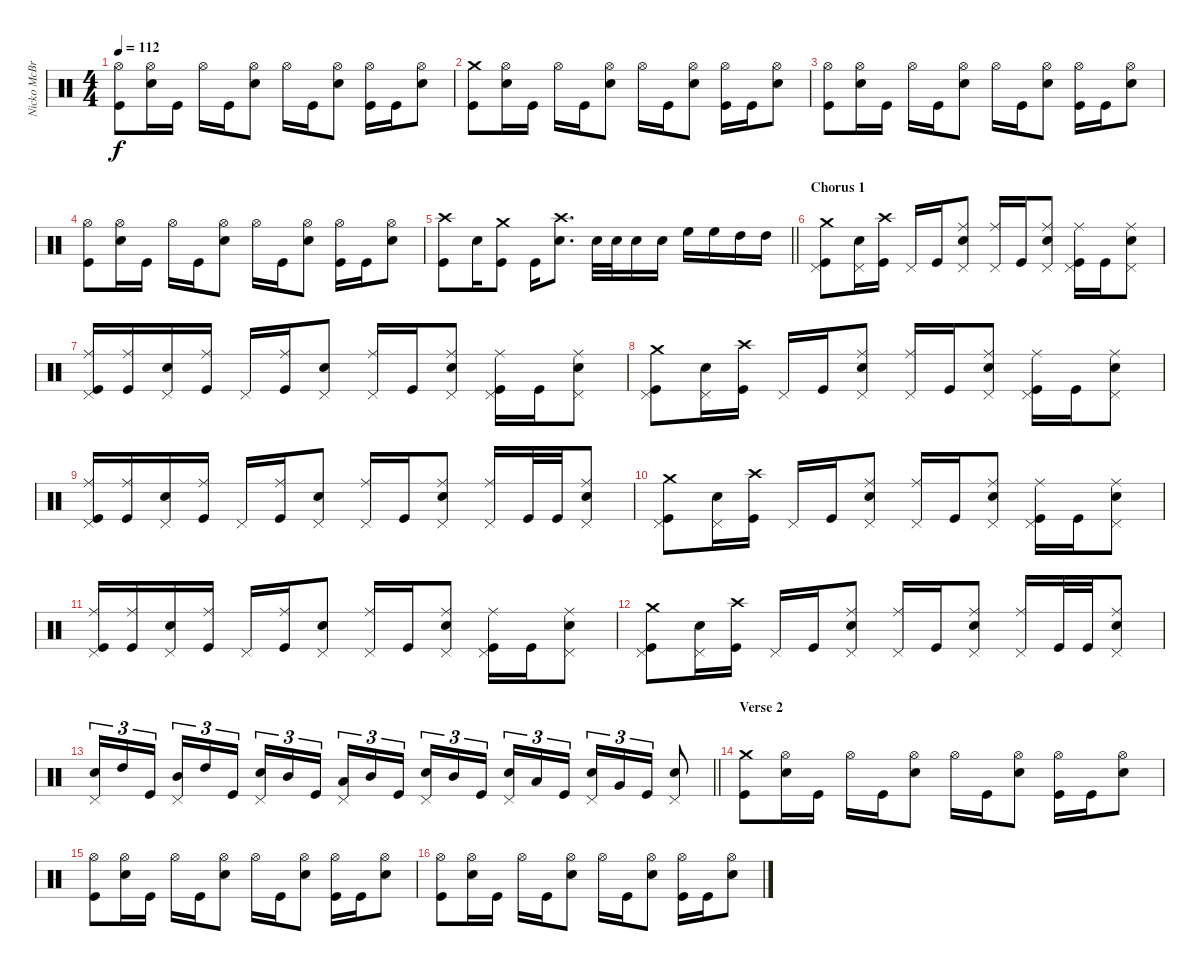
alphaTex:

\track ("Nicko McBrain" "Nicko McBr") {instrument percussion}
\staff {score}
\articulation defaults
\ts (4 4)
\tempo 112
\clef neutral
\ks c
("Hi-Hat (open)" "Kick (hit)").8{dy f} ("Hi-Hat (open)" "Snare (hit) 2").16 "Kick (hit)".16 "Hi-Hat (open)".16 "Kick (hit)".16 ("Hi-Hat (open)" "Snare (hit) 2").8 "Hi-Hat (open)".16 "Kick (hit)".16 ("Hi-Hat (open)" "Snare (hit) 2").8 ("Hi-Hat (open)" "Kick (hit)").16 "Kick (hit)".16 ("Hi-Hat (open)" "Snare (hit) 2").8 |
("Crash medium (hit)" "Kick (hit)").8 ("Hi-Hat (open)" "Snare (hit) 2").16 "Kick (hit)".16 "Hi-Hat (open)".16 "Kick (hit)".16 ("Hi-Hat (open)" "Snare (hit) 2").8 "Hi-Hat (open)".16 "Kick (hit)".16 ("Hi-Hat (open)" "Snare (hit) 2").8 ("Hi-Hat (open)" "Kick (hit)").16 "Kick (hit)".16 ("Hi-Hat (open)" "Snare (hit) 2").8 |
("Hi-Hat (open)" "Kick (hit)").8 ("Hi-Hat (open)" "Snare (hit) 2").16 "Kick (hit)".16 "Hi-Hat (open)".16 "Kick (hit)".16 ("Hi-Hat (open)" "Snare (hit) 2").8 "Hi-Hat (open)".16 "Kick (hit)".16 ("Hi-Hat (open)" "Snare (hit) 2").8 ("Hi-Hat (open)" "Kick (hit)").16 "Kick (hit)".16 ("Hi-Hat (open)" "Snare (hit) 2").8 |
("Hi-Hat (open)" "Kick (hit)").8 ("Hi-Hat (open)" "Snare (hit) 2").16 "Kick (hit)".16 "Hi-Hat (open)".16 "Kick (hit)".16 ("Hi-Hat (open)" "Snare (hit) 2").8 "Hi-Hat (open)".16 "Kick (hit)".16 ("Hi-Hat (open)" "Snare (hit) 2").8 ("Hi-Hat (open)" "Kick (hit)").16 "Kick (hit)".16 ("Hi-Hat (open)" "Snare (hit) 2").8 |
\barLineRight lightlight
("Crash high (hit)" "Kick (hit)").8 "Snare (hit) 2".16 ("Crash medium (hit)" "Kick (hit)").8 "Kick (hit)".16 ("Crash high (hit)" "Snare (hit) 2").8{d} "Snare (hit) 2".32 "Snare (hit) 2".32 "Snare (hit) 2".16 "Snare (hit) 2".16 "High Floor Tom (hit)".16 "High Floor Tom (hit)".16 "High Tom (hit)".16 "High Tom (hit)".16 |
\section ("" "Chorus 1")
("Crash medium (hit)" "Pedal Hi-Hat (hit)" "Kick (hit)").8 ("Snare (hit) 2" "Pedal Hi-Hat (hit)").16 ("Crash high (hit)" "Kick (hit)").16 "Pedal Hi-Hat (hit)".16 "Kick (hit)".16 ("Ride (middle)" "Snare (hit) 2" "Pedal Hi-Hat (hit)").8 ("Ride (middle)" "Pedal Hi-Hat (hit)").16 "Kick (hit)".16 ("Ride (middle)" "Snare (hit) 2" "Pedal Hi-Hat (hit)").8 ("Ride (middle)" "Pedal Hi-Hat (hit)" "Kick (hit)").16 "Kick (hit)".16 ("Ride (middle)" "Snare (hit) 2" "Pedal Hi-Hat (hit)").8 |
("Ride (middle)" "Pedal Hi-Hat (hit)" "Kick (hit)").16 ("Ride (middle)" "Kick (hit)").16 ("Snare (hit) 2" "Pedal Hi-Hat (hit)").16 ("Ride (middle)" "Kick (hit)").16 "Pedal Hi-Hat (hit)".16 ("Ride (middle)" "Kick (hit)").16 ("Snare (hit) 2" "Pedal Hi-Hat (hit)").8 ("Ride (middle)" "Pedal Hi-Hat (hit)").16 "Kick (hit)".16 ("Ride (middle)" "Snare (hit) 2" "Pedal Hi-Hat (hit)").8 ("Ride (middle)" "Pedal Hi-Hat (hit)" "Kick (hit)").16 "Kick (hit)".16 ("Ride (middle)" "Snare (hit) 2" "Pedal Hi-Hat (hit)").8 |
("Crash medium (hit)" "Pedal Hi-Hat (hit)" "Kick (hit)").8 ("Snare (hit) 2" "Pedal Hi-Hat (hit)").16 ("Crash high (hit)" "Kick (hit)").16 "Pedal Hi-Hat (hit)".16 "Kick (hit)".16 ("Ride (middle)" "Snare (hit) 2" "Pedal Hi-Hat (hit)").8 ("Ride (middle)" "Pedal Hi-Hat (hit)").16 "Kick (hit)".16 ("Ride (middle)" "Snare (hit) 2" "Pedal Hi-Hat (hit)").8 ("Ride (middle)" "Pedal Hi-Hat (hit)" "Kick (hit)").16 "Kick (hit)".16 ("Ride (middle)" "Snare (hit) 2" "Pedal Hi-Hat (hit)").8 |
("Ride (middle)" "Pedal Hi-Hat (hit)" "Kick (hit)").16 ("Ride (middle)" "Kick (hit)").16 ("Snare (hit) 2" "Pedal Hi-Hat (hit)").16 ("Ride (middle)" "Kick (hit)").16 "Pedal Hi-Hat (hit)".16 ("Ride (middle)" "Kick (hit)").16 ("Snare (hit) 2" "Pedal Hi-Hat (hit)").8 ("Ride (middle)" "Pedal Hi-Hat (hit)").16 "Kick (hit)".16 ("Ride (middle)" "Snare (hit) 2" "Pedal Hi-Hat (hit)").8 ("Ride (middle)" "Pedal Hi-Hat (hit)").16 "Kick (hit)".32 "Kick (hit)".32 ("Ride (middle)" "Snare (hit) 2" "Pedal Hi-Hat (hit)").8 |
("Crash medium (hit)" "Pedal Hi-Hat (hit)" "Kick (hit)").8 ("Snare (hit) 2" "Pedal Hi-Hat (hit)").16 ("Crash high (hit)" "Kick (hit)").16 "Pedal Hi-Hat (hit)".16 "Kick (hit)".16 ("Ride (middle)" "Snare (hit) 2" "Pedal Hi-Hat (hit)").8 ("Ride (middle)" "Pedal Hi-Hat (hit)").16 "Kick (hit)".16 ("Ride (middle)" "Snare (hit) 2" "Pedal Hi-Hat (hit)").8 ("Ride (middle)" "Pedal Hi-Hat (hit)" "Kick (hit)").16 "Kick (hit)".16 ("Ride (middle)" "Snare (hit) 2" "Pedal Hi-Hat (hit)").8 |
("Ride (middle)" "Pedal Hi-Hat (hit)" "Kick (hit)").16 ("Ride (middle)" "Kick (hit)").16 ("Snare (hit) 2" "Pedal Hi-Hat (hit)").16 ("Ride (middle)" "Kick (hit)").16 "Pedal Hi-Hat (hit)".16 ("Ride (middle)" "Kick (hit)").16 ("Snare (hit) 2" "Pedal Hi-Hat (hit)").8 ("Ride (middle)" "Pedal Hi-Hat (hit)").16 "Kick (hit)".16 ("Ride (middle)" "Snare (hit) 2" "Pedal Hi-Hat (hit)").8 ("Ride (middle)" "Pedal Hi-Hat (hit)" "Kick (hit)").16 "Kick (hit)".16 ("Ride (middle)" "Snare (hit) 2" "Pedal Hi-Hat (hit)").8 |
("Crash medium (hit)" "Pedal Hi-Hat (hit)" "Kick (hit)").8 ("Snare (hit) 2" "Pedal Hi-Hat (hit)").16 ("Crash high (hit)" "Kick (hit)").16 "Pedal Hi-Hat (hit)".16 "Kick (hit)".16 ("Ride (middle)" "Snare (hit) 2" "Pedal Hi-Hat (hit)").8 ("Ride (middle)" "Pedal Hi-Hat (hit)").16 "Kick (hit)".16 ("Ride (middle)" "Snare (hit) 2" "Pedal Hi-Hat (hit)").8 ("Ride (middle)" "Pedal Hi-Hat (hit)").16 "Kick (hit)".32 "Kick (hit)".32 ("Ride (middle)" "Snare (hit) 2" "Pedal Hi-Hat (hit)").8 |
\barLineRight lightlight
("Snare (hit) 2" "Pedal Hi-Hat (hit)").16{tu (3 2)} "High Tom (hit)".16{tu (3 2)} "Kick (hit)".16{tu (3 2) beam splitsecondary} ("Mid Tom (hit)" "Pedal Hi-Hat (hit)").16{tu (3 2)} "High Tom (hit)".16{tu (3 2)} "Kick (hit)".16{tu (3 2)} ("Snare (hit) 2" "Pedal Hi-Hat (hit)").16{tu (3 2)} "Mid Tom (hit)".16{tu (3 2)} "Kick (hit)".16{tu (3 2) beam splitsecondary} ("Low Tom (hit)" "Pedal Hi-Hat (hit)").16{tu (3 2)} "Mid Tom (hit)".16{tu (3 2)} "Kick (hit)".16{tu (3 2)} ("Snare (hit) 2" "Pedal Hi-Hat (hit)").16{tu (3 2)} "Mid Tom (hit)".16{tu (3 2)} "Kick (hit)".16{tu (3 2) beam splitsecondary} ("Snare (hit) 2" "Pedal Hi-Hat (hit)").16{tu (3 2)} "Low Tom (hit)".16{tu (3 2)} "Kick (hit)".16{tu (3 2)} ("Snare (hit) 2" "Pedal Hi-Hat (hit)").16{tu (3 2)} "Very Low Tom (hit)".16{tu (3 2)} "Kick (hit)".16{tu (3 2)} ("Snare (hit) 2" "Pedal Hi-Hat (hit)").8 |
\section ("" "Verse 2")
("Crash medium (hit)" "Kick (hit)").8 ("Hi-Hat (open)" "Snare (hit) 2").16 "Kick (hit)".16 "Hi-Hat (open)".16 "Kick (hit)".16 ("Hi-Hat (open)" "Snare (hit) 2").8 "Hi-Hat (open)".16 "Kick (hit)".16 ("Hi-Hat (open)" "Snare (hit) 2").8 ("Hi-Hat (open)" "Kick (hit)").16 "Kick (hit)".16 ("Hi-Hat (open)" "Snare (hit) 2").8 |
("Hi-Hat (open)" "Kick (hit)").8 ("Hi-Hat (open)" "Snare (hit) 2").16 "Kick (hit)".16 "Hi-Hat (open)".16 "Kick (hit)".16 ("Hi-Hat (open)" "Snare (hit) 2").8 "Hi-Hat (open)".16 "Kick (hit)".16 ("Hi-Hat (open)" "Snare (hit) 2").8 ("Hi-Hat (open)" "Kick (hit)").16 "Kick (hit)".16 ("Hi-Hat (open)" "Snare (hit) 2").8 |
("Hi-Hat (open)" "Kick (hit)").8 ("Hi-Hat (open)" "Snare (hit) 2").16 "Kick (hit)".16 "Hi-Hat (open)".16 "Kick (hit)".16 ("Hi-Hat (open)" "Snare (hit) 2").8 "Hi-Hat (open)".16 "Kick (hit)".16 ("Hi-Hat (open)" "Snare (hit) 2").8 ("Hi-Hat (open)" "Kick (hit)").16 "Kick (hit)".16 ("Hi-Hat (open)" "Snare (hit) 2").8
